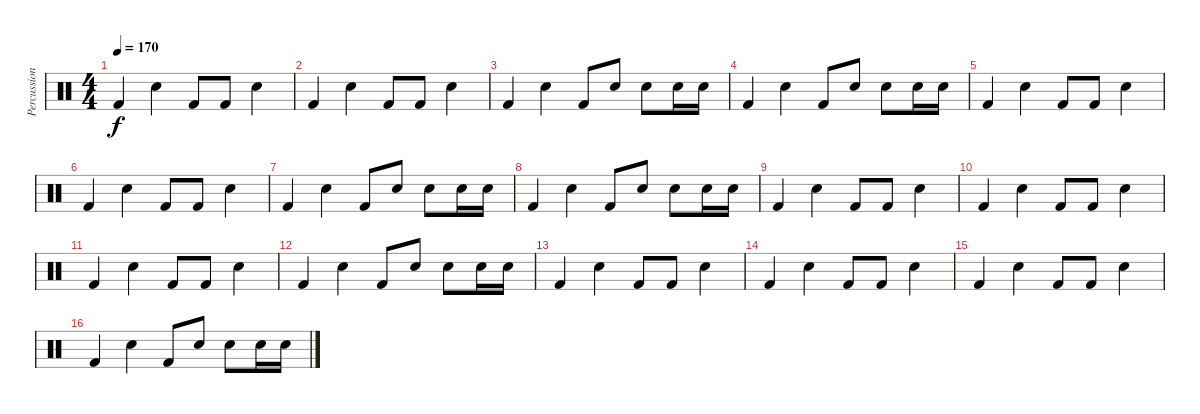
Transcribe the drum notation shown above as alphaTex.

\track ("Percussion" "Percussion") {instrument percussion}
\staff {score}
\articulation defaults
\ts (4 4)
\tempo 170
\clef neutral
\ks c "Kick (hit) 2".4{dy f} "Snare (hit) 2".4 "Kick (hit) 2".8 "Kick (hit) 2".8 "Snare (hit) 2".4
|
"Kick (hit) 2".4 "Snare (hit) 2".4 "Kick (hit) 2".8 "Kick (hit) 2".8 "Snare (hit) 2".4 |
"Kick (hit) 2".4 "Snare (hit) 2".4 "Kick (hit) 2".8 "Snare (hit) 2".8 "Snare (hit) 2".8 "Snare (hit) 2".16 "Snare (hit) 2".16 |
"Kick (hit) 2".4 "Snare (hit) 2".4 "Kick (hit) 2".8 "Snare (hit) 2".8 "Snare (hit) 2".8 "Snare (hit) 2".16 "Snare (hit) 2".16 |
"Kick (hit) 2".4 "Snare (hit) 2".4 "Kick (hit) 2".8 "Kick (hit) 2".8 "Snare (hit) 2".4 |
"Kick (hit) 2".4 "Snare (hit) 2".4 "Kick (hit) 2".8 "Kick (hit) 2".8 "Snare (hit) 2".4 |
"Kick (hit) 2".4 "Snare (hit) 2".4 "Kick (hit) 2".8 "Snare (hit) 2".8 "Snare (hit) 2".8 "Snare (hit) 2".16 "Snare (hit) 2".16 |
"Kick (hit) 2".4 "Snare (hit) 2".4 "Kick (hit) 2".8 "Snare (hit) 2".8 "Snare (hit) 2".8 "Snare (hit) 2".16 "Snare (hit) 2".16 |
"Kick (hit) 2".4 "Snare (hit) 2".4 "Kick (hit) 2".8 "Kick (hit) 2".8 "Snare (hit) 2".4 |
"Kick (hit) 2".4 "Snare (hit) 2".4 "Kick (hit) 2".8 "Kick (hit) 2".8 "Snare (hit) 2".4 |
"Kick (hit) 2".4 "Snare (hit) 2".4 "Kick (hit) 2".8 "Kick (hit) 2".8 "Snare (hit) 2".4 |
"Kick (hit) 2".4 "Snare (hit) 2".4 "Kick (hit) 2".8 "Snare (hit) 2".8 "Snare (hit) 2".8 "Snare (hit) 2".16 "Snare (hit) 2".16 |
"Kick (hit) 2".4 "Snare (hit) 2".4 "Kick (hit) 2".8 "Kick (hit) 2".8 "Snare (hit) 2".4 |
"Kick (hit) 2".4 "Snare (hit) 2".4 "Kick (hit) 2".8 "Kick (hit) 2".8 "Snare (hit) 2".4 |
"Kick (hit) 2".4 "Snare (hit) 2".4 "Kick (hit) 2".8 "Kick (hit) 2".8 "Snare (hit) 2".4 |
"Kick (hit) 2".4 "Snare (hit) 2".4 "Kick (hit) 2".8 "Snare (hit) 2".8 "Snare (hit) 2".8 "Snare (hit) 2".16 "Snare (hit) 2".16
